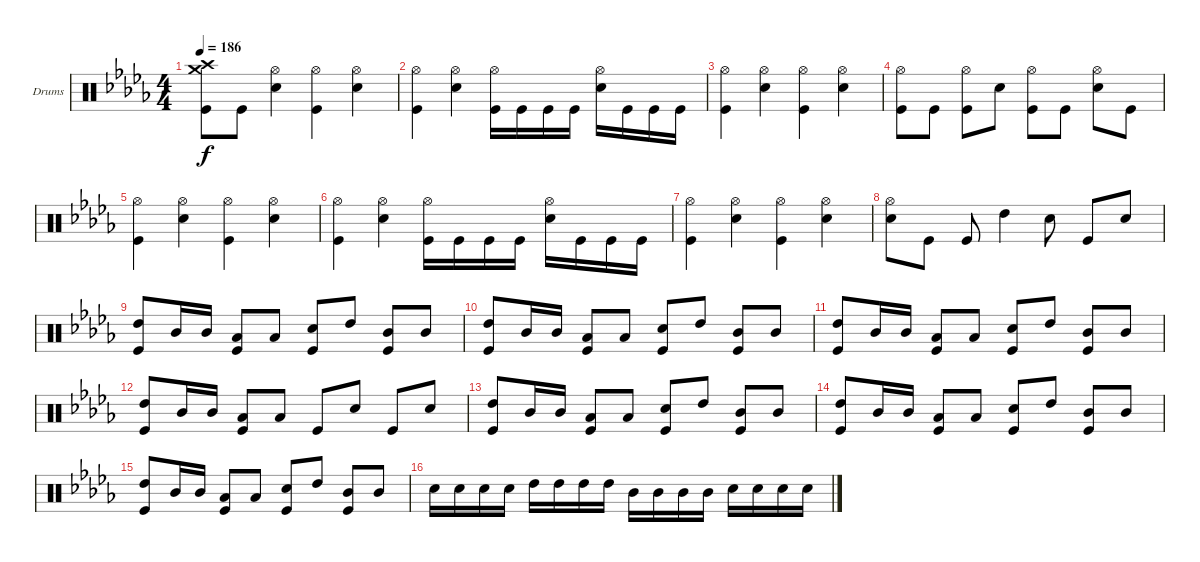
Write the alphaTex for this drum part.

\bracketExtendMode groupsimilarinstruments
\firstSystemTrackNameOrientation horizontal
\otherSystemsTrackNameOrientation horizontal
\track ("Drumkit" "Drums") {instrument percussion}
\staff {score}
\articulation defaults
\ts (4 4)
\tempo 186
\clef neutral
\ks db
("Crash high (hit)" "Crash medium (hit)" "Kick (hit)").8{dy f} "Kick (hit)".8 ("Hi-Hat (open)" "Snare (hit) 2").4 ("Hi-Hat (open)" "Kick (hit)").4 ("Hi-Hat (open)" "Snare (hit) 2").4 |
("Hi-Hat (open)" "Kick (hit)").4 ("Hi-Hat (open)" "Snare (hit) 2").4 ("Hi-Hat (open)" "Kick (hit)").16 "Kick (hit)".16 "Kick (hit)".16 "Kick (hit)".16 ("Hi-Hat (open)" "Snare (hit) 2").16 "Kick (hit)".16 "Kick (hit)".16 "Kick (hit)".16 |
("Hi-Hat (open)" "Kick (hit)").4 ("Hi-Hat (open)" "Snare (hit) 2").4 ("Hi-Hat (open)" "Kick (hit)").4 ("Hi-Hat (open)" "Snare (hit) 2").4 |
("Hi-Hat (open)" "Kick (hit)").8 "Kick (hit)".8 ("Hi-Hat (open)" "Kick (hit)").8 "Snare (hit) 2".8 ("Hi-Hat (open)" "Kick (hit)").8 "Kick (hit)".8 ("Hi-Hat (open)" "Snare (hit) 2").8 "Kick (hit)".8 |
("Hi-Hat (open)" "Kick (hit)").4 ("Hi-Hat (open)" "Snare (hit) 2").4 ("Hi-Hat (open)" "Kick (hit)").4 ("Hi-Hat (open)" "Snare (hit) 2").4 |
("Hi-Hat (open)" "Kick (hit)").4 ("Hi-Hat (open)" "Snare (hit) 2").4 ("Hi-Hat (open)" "Kick (hit)").16 "Kick (hit)".16 "Kick (hit)".16 "Kick (hit)".16 ("Hi-Hat (open)" "Snare (hit) 2").16 "Kick (hit)".16 "Kick (hit)".16 "Kick (hit)".16 |
("Hi-Hat (open)" "Kick (hit)").4 ("Hi-Hat (open)" "Snare (hit) 2").4 ("Hi-Hat (open)" "Kick (hit)").4 ("Hi-Hat (open)" "Snare (hit) 2").4 |
("Hi-Hat (open)" "Snare (hit) 2").8 "Kick (hit)".8 "Kick (hit)".8 "High Tom (hit)".4 "Snare (hit) 2".8 "Kick (hit)".8 "Snare (hit) 2".8 |
("High Tom (hit)" "Kick (hit)").8 "Mid Tom (hit)".16 "Mid Tom (hit)".16 ("Low Tom (hit)" "Kick (hit)").8 "Low Tom (hit)".8 ("Snare (hit) 2" "Kick (hit)").8 "High Tom (hit)".8 ("Mid Tom (hit)" "Kick (hit)").8 "Mid Tom (hit)".8 |
("High Tom (hit)" "Kick (hit)").8 "Mid Tom (hit)".16 "Mid Tom (hit)".16 ("Low Tom (hit)" "Kick (hit)").8 "Low Tom (hit)".8 ("Snare (hit) 2" "Kick (hit)").8 "High Tom (hit)".8 ("Mid Tom (hit)" "Kick (hit)").8 "Mid Tom (hit)".8 |
("High Tom (hit)" "Kick (hit)").8 "Mid Tom (hit)".16 "Mid Tom (hit)".16 ("Low Tom (hit)" "Kick (hit)").8 "Low Tom (hit)".8 ("Snare (hit) 2" "Kick (hit)").8 "High Tom (hit)".8 ("Mid Tom (hit)" "Kick (hit)").8 "Mid Tom (hit)".8 |
("High Tom (hit)" "Kick (hit)").8 "Mid Tom (hit)".16 "Mid Tom (hit)".16 ("Low Tom (hit)" "Kick (hit)").8 "Low Tom (hit)".8 "Kick (hit)".8 "Snare (hit) 2".8 "Kick (hit)".8 "Snare (hit) 2".8 |
("High Tom (hit)" "Kick (hit)").8 "Mid Tom (hit)".16 "Mid Tom (hit)".16 ("Low Tom (hit)" "Kick (hit)").8 "Low Tom (hit)".8 ("Snare (hit) 2" "Kick (hit)").8 "High Tom (hit)".8 ("Mid Tom (hit)" "Kick (hit)").8 "Mid Tom (hit)".8 |
("High Tom (hit)" "Kick (hit)").8 "Mid Tom (hit)".16 "Mid Tom (hit)".16 ("Low Tom (hit)" "Kick (hit)").8 "Low Tom (hit)".8 ("Snare (hit) 2" "Kick (hit)").8 "High Tom (hit)".8 ("Mid Tom (hit)" "Kick (hit)").8 "Mid Tom (hit)".8 |
("High Tom (hit)" "Kick (hit)").8 "Mid Tom (hit)".16 "Mid Tom (hit)".16 ("Low Tom (hit)" "Kick (hit)").8 "Low Tom (hit)".8 ("Snare (hit) 2" "Kick (hit)").8 "High Tom (hit)".8 ("Mid Tom (hit)" "Kick (hit)").8 "Mid Tom (hit)".8 |
"Snare (hit) 2".16 "Snare (hit) 2".16 "Snare (hit) 2".16 "Snare (hit) 2".16 "High Tom (hit)".16 "High Tom (hit)".16 "High Tom (hit)".16 "High Tom (hit)".16 "Mid Tom (hit)".16 "Mid Tom (hit)".16 "Mid Tom (hit)".16 "Mid Tom (hit)".16 "Snare (hit) 2".16 "Snare (hit) 2".16 "Snare (hit) 2".16 "Snare (hit) 2".16
